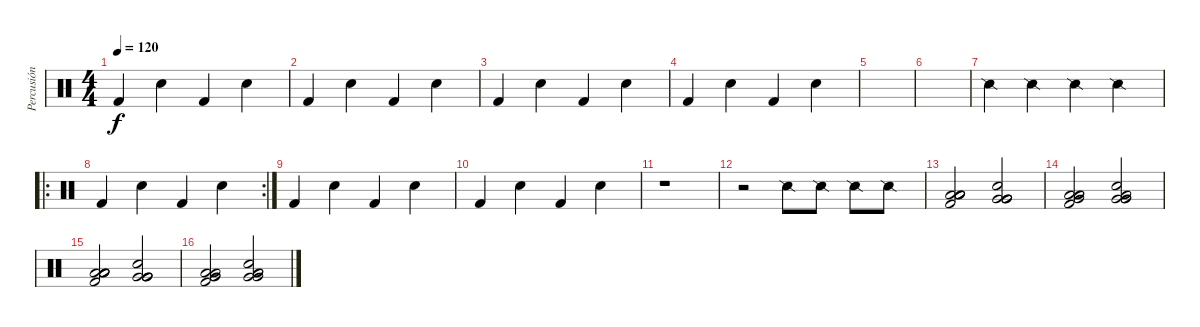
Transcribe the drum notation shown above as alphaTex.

\track ("Percusión" "Percusión") {instrument percussion}
\staff {score}
\articulation defaults
\ts (4 4)
\tempo 120
\clef neutral
\ks c "Kick (hit) 2".4{dy f} "Snare (hit) 2".4 "Kick (hit) 2".4 "Snare (hit) 2".4
|
"Kick (hit) 2".4 "Snare (hit) 2".4 "Kick (hit) 2".4 "Snare (hit) 2".4 |
"Kick (hit) 2".4 "Snare (hit) 2".4 "Kick (hit) 2".4 "Snare (hit) 2".4 |
"Kick (hit) 2".4 "Snare (hit) 2".4 "Kick (hit) 2".4 "Snare (hit) 2".4 |
|
|
"Snare (side stick) 2".4 "Snare (side stick) 2".4 "Snare (side stick) 2".4 "Snare (side stick) 2".4 |
\ro
\rc 2 "Kick (hit) 2".4 "Snare (hit) 2".4 "Kick (hit) 2".4 "Snare (hit) 2".4
|
"Kick (hit) 2".4 "Snare (hit) 2".4 "Kick (hit) 2".4 "Snare (hit) 2".4 |
"Kick (hit) 2".4 "Snare (hit) 2".4 "Kick (hit) 2".4 "Snare (hit) 2".4 |
r.1 |
r.2 "Snare (side stick) 2".8 "Snare (side stick) 2".8 "Snare (side stick) 2".8 "Snare (side stick) 2".8 |
("Kick (hit) 2" "Low Floor Tom (hit)" "Low Floor Tom (hit)" "Low Floor Tom (hit)" "Low Floor Tom (hit)").2 ("Snare (hit) 2" "Very Low Tom (hit)" "Very Low Tom (hit)" "Very Low Tom (hit)" "Very Low Tom (hit)").2 |
("Kick (hit) 2" "Low Floor Tom (hit)" "Low Floor Tom (hit)" "Low Floor Tom (hit)" "Very Low Tom (hit)").2 ("Snare (hit) 2" "Very Low Tom (hit)" "Very Low Tom (hit)" "Very Low Tom (hit)" "Low Floor Tom (hit)").2 |
("Kick (hit) 2" "Low Floor Tom (hit)" "Low Floor Tom (hit)" "Low Floor Tom (hit)" "Low Floor Tom (hit)").2 ("Snare (hit) 2" "Very Low Tom (hit)" "Very Low Tom (hit)" "Very Low Tom (hit)" "Very Low Tom (hit)").2 |
("Kick (hit) 2" "Low Floor Tom (hit)" "Low Floor Tom (hit)" "Very Low Tom (hit)" "Very Low Tom (hit)").2 ("Snare (hit) 2" "Very Low Tom (hit)" "Very Low Tom (hit)" "Low Floor Tom (hit)" "Low Floor Tom (hit)").2
